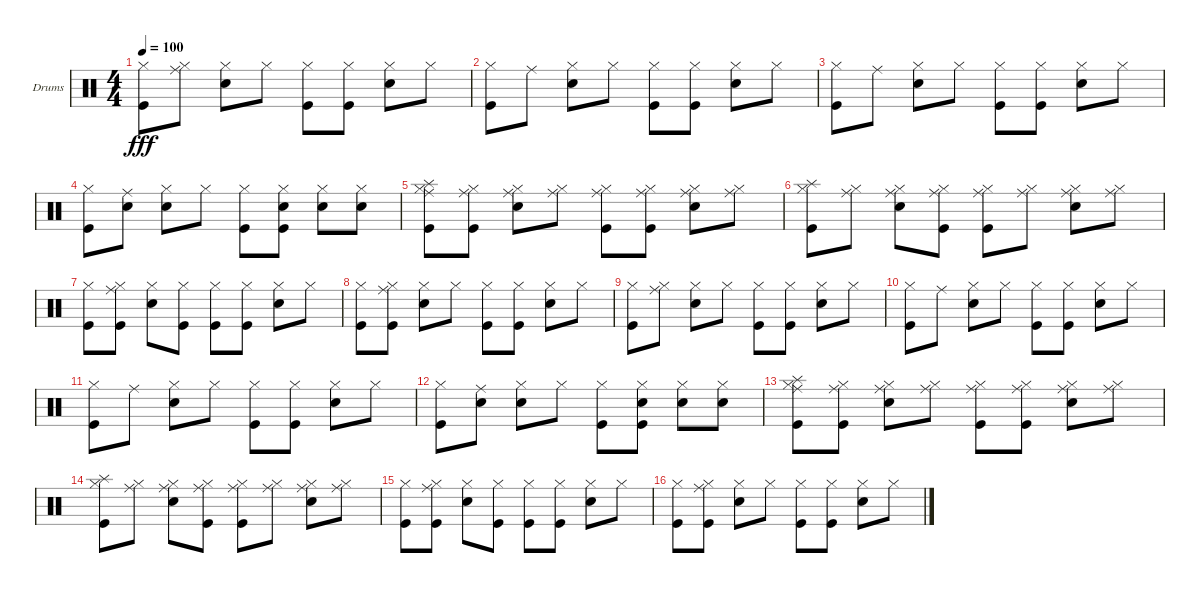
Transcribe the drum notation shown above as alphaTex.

\defaultSystemsLayout 4
\bracketExtendMode groupsimilarinstruments
\firstSystemTrackNameOrientation horizontal
\otherSystemsTrackNameOrientation horizontal
\track ("Drumkit" "Drums") {instrument percussion}
\staff {score}
\articulation defaults
\ts (4 4)
\tempo 100
\clef neutral
\ks c
("Kick (hit)" "Hi-Hat (closed)").8{dy fff} ("Ride (middle)" "Hi-Hat (closed)").8 ("Snare (hit) 2" "Hi-Hat (closed)").8 "Hi-Hat (closed)".8 ("Kick (hit)" "Hi-Hat (closed)").8 ("Kick (hit)" "Hi-Hat (closed)").8 ("Snare (hit) 2" "Hi-Hat (closed)").8 "Hi-Hat (closed)".8 |
("Kick (hit)" "Hi-Hat (closed)").8 "Ride (middle)".8 ("Snare (hit) 2" "Hi-Hat (closed)").8 "Hi-Hat (closed)".8 ("Kick (hit)" "Hi-Hat (closed)").8 ("Kick (hit)" "Hi-Hat (closed)").8 ("Snare (hit) 2" "Hi-Hat (closed)").8 "Hi-Hat (closed)".8 |
("Kick (hit)" "Hi-Hat (closed)").8 "Ride (middle)".8 ("Snare (hit) 2" "Hi-Hat (closed)").8 "Hi-Hat (closed)".8 ("Kick (hit)" "Hi-Hat (closed)").8 ("Kick (hit)" "Hi-Hat (closed)").8 ("Snare (hit) 2" "Hi-Hat (closed)").8 "Hi-Hat (closed)".8 |
("Kick (hit)" "Hi-Hat (closed)").8 ("Ride (middle)" "Snare (hit) 2").8 ("Snare (hit) 2" "Hi-Hat (closed)").8 "Hi-Hat (closed)".8 ("Kick (hit)" "Hi-Hat (closed)").8 ("Kick (hit)" "Hi-Hat (closed)" "Snare (hit) 2").8 ("Snare (hit) 2" "Hi-Hat (closed)").8 ("Hi-Hat (closed)" "Snare (hit) 2").8 |
("Ride (middle)" "Kick (hit)" "Hi-Hat (closed)" "Splash (hit)").8 ("Ride (middle)" "Hi-Hat (closed)" "Kick (hit)").8 ("Ride (middle)" "Snare (hit) 2" "Hi-Hat (closed)").8 ("Ride (middle)" "Hi-Hat (closed)").8 ("Ride (middle)" "Hi-Hat (closed)" "Kick (hit)").8 ("Ride (middle)" "Kick (hit)" "Hi-Hat (closed)").8 ("Ride (middle)" "Snare (hit) 2" "Hi-Hat (closed)").8 ("Ride (middle)" "Hi-Hat (closed)").8 |
("Splash (hit)" "Hi-Hat (closed)" "Kick (hit)").8 ("Hi-Hat (closed)" "Ride (middle)").8 ("Ride (middle)" "Snare (hit) 2" "Hi-Hat (closed)").8 ("Ride (middle)" "Kick (hit)" "Hi-Hat (closed)").8 ("Ride (middle)" "Kick (hit)" "Hi-Hat (closed)").8 ("Ride (middle)" "Hi-Hat (closed)").8 ("Ride (middle)" "Snare (hit) 2" "Hi-Hat (closed)").8 ("Ride (middle)" "Hi-Hat (closed)").8 |
("Kick (hit)" "Hi-Hat (closed)").8 ("Ride (middle)" "Hi-Hat (closed)" "Kick (hit)").8 ("Snare (hit) 2" "Hi-Hat (closed)").8 ("Kick (hit)" "Hi-Hat (closed)").8 ("Hi-Hat (closed)" "Kick (hit)").8 ("Kick (hit)" "Hi-Hat (closed)").8 ("Snare (hit) 2" "Hi-Hat (closed)").8 "Hi-Hat (closed)".8 |
("Kick (hit)" "Hi-Hat (closed)").8 ("Ride (middle)" "Hi-Hat (closed)" "Kick (hit)").8 ("Snare (hit) 2" "Hi-Hat (closed)").8 "Hi-Hat (closed)".8 ("Kick (hit)" "Hi-Hat (closed)").8 ("Kick (hit)" "Hi-Hat (closed)").8 ("Snare (hit) 2" "Hi-Hat (closed)").8 "Hi-Hat (closed)".8 |
("Kick (hit)" "Hi-Hat (closed)").8 ("Ride (middle)" "Hi-Hat (closed)").8 ("Snare (hit) 2" "Hi-Hat (closed)").8 "Hi-Hat (closed)".8 ("Kick (hit)" "Hi-Hat (closed)").8 ("Kick (hit)" "Hi-Hat (closed)").8 ("Snare (hit) 2" "Hi-Hat (closed)").8 "Hi-Hat (closed)".8 |
("Kick (hit)" "Hi-Hat (closed)").8 "Ride (middle)".8 ("Snare (hit) 2" "Hi-Hat (closed)").8 "Hi-Hat (closed)".8 ("Kick (hit)" "Hi-Hat (closed)").8 ("Kick (hit)" "Hi-Hat (closed)").8 ("Snare (hit) 2" "Hi-Hat (closed)").8 "Hi-Hat (closed)".8 |
("Kick (hit)" "Hi-Hat (closed)").8 "Ride (middle)".8 ("Snare (hit) 2" "Hi-Hat (closed)").8 "Hi-Hat (closed)".8 ("Kick (hit)" "Hi-Hat (closed)").8 ("Kick (hit)" "Hi-Hat (closed)").8 ("Snare (hit) 2" "Hi-Hat (closed)").8 "Hi-Hat (closed)".8 |
("Kick (hit)" "Hi-Hat (closed)").8 ("Ride (middle)" "Snare (hit) 2").8 ("Snare (hit) 2" "Hi-Hat (closed)").8 "Hi-Hat (closed)".8 ("Kick (hit)" "Hi-Hat (closed)").8 ("Kick (hit)" "Hi-Hat (closed)" "Snare (hit) 2").8 ("Snare (hit) 2" "Hi-Hat (closed)").8 ("Hi-Hat (closed)" "Snare (hit) 2").8 |
("Ride (middle)" "Kick (hit)" "Hi-Hat (closed)" "Splash (hit)").8 ("Ride (middle)" "Hi-Hat (closed)" "Kick (hit)").8 ("Ride (middle)" "Snare (hit) 2" "Hi-Hat (closed)").8 ("Ride (middle)" "Hi-Hat (closed)").8 ("Ride (middle)" "Hi-Hat (closed)" "Kick (hit)").8 ("Ride (middle)" "Kick (hit)" "Hi-Hat (closed)").8 ("Ride (middle)" "Snare (hit) 2" "Hi-Hat (closed)").8 ("Ride (middle)" "Hi-Hat (closed)").8 |
("Splash (hit)" "Hi-Hat (closed)" "Kick (hit)").8 ("Hi-Hat (closed)" "Ride (middle)").8 ("Ride (middle)" "Snare (hit) 2" "Hi-Hat (closed)").8 ("Ride (middle)" "Kick (hit)" "Hi-Hat (closed)").8 ("Ride (middle)" "Kick (hit)" "Hi-Hat (closed)").8 ("Ride (middle)" "Hi-Hat (closed)").8 ("Ride (middle)" "Snare (hit) 2" "Hi-Hat (closed)").8 ("Ride (middle)" "Hi-Hat (closed)").8 |
("Kick (hit)" "Hi-Hat (closed)").8 ("Ride (middle)" "Hi-Hat (closed)" "Kick (hit)").8 ("Snare (hit) 2" "Hi-Hat (closed)").8 ("Kick (hit)" "Hi-Hat (closed)").8 ("Hi-Hat (closed)" "Kick (hit)").8 ("Kick (hit)" "Hi-Hat (closed)").8 ("Snare (hit) 2" "Hi-Hat (closed)").8 "Hi-Hat (closed)".8 |
("Kick (hit)" "Hi-Hat (closed)").8 ("Ride (middle)" "Hi-Hat (closed)" "Kick (hit)").8 ("Snare (hit) 2" "Hi-Hat (closed)").8 "Hi-Hat (closed)".8 ("Kick (hit)" "Hi-Hat (closed)").8 ("Kick (hit)" "Hi-Hat (closed)").8 ("Snare (hit) 2" "Hi-Hat (closed)").8 "Hi-Hat (closed)".8
